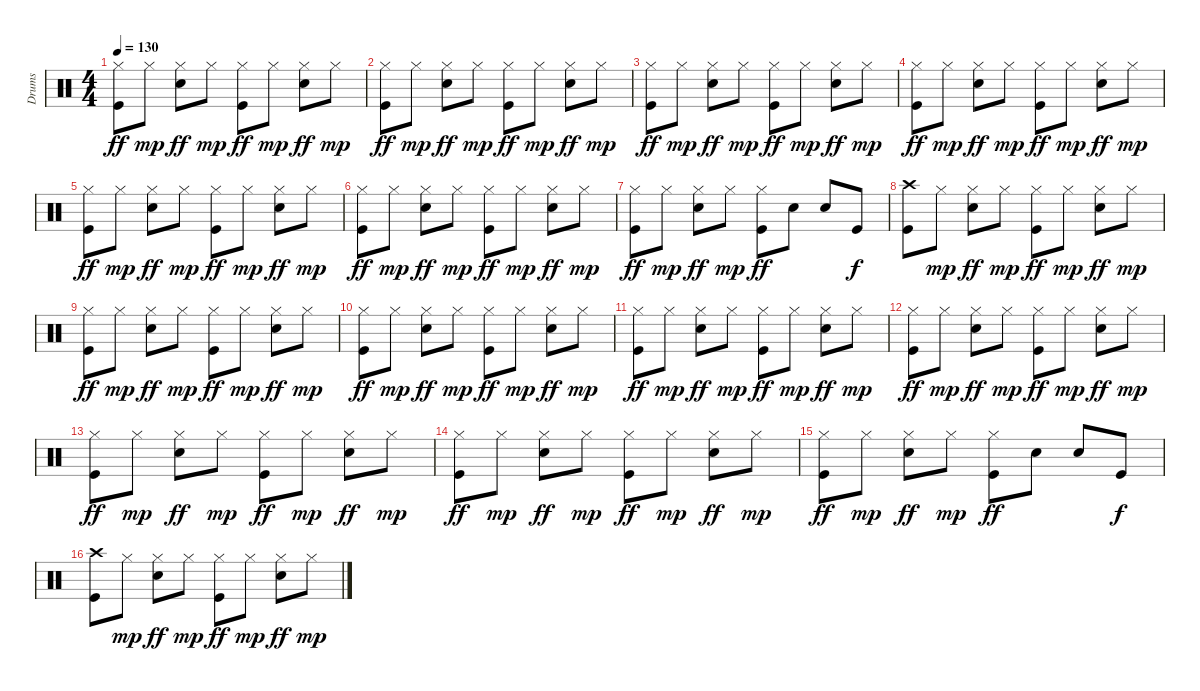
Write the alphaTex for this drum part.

\track ("Drums" "Drums") {instrument percussion}
\staff {score}
\articulation defaults
\ts (4 4)
\tempo 130
\clef neutral
\ks c
("Hi-Hat (closed)" "Kick (hit)").8{dy ff} "Hi-Hat (closed)".8{dy mp} ("Hi-Hat (closed)" "Snare (hit) 2").8{dy ff} "Hi-Hat (closed)".8{dy mp} ("Hi-Hat (closed)" "Kick (hit)").8{dy ff} "Hi-Hat (closed)".8{dy mp} ("Hi-Hat (closed)" "Snare (hit) 2").8{dy ff} "Hi-Hat (closed)".8{dy mp} |
("Hi-Hat (closed)" "Kick (hit)").8{dy ff} "Hi-Hat (closed)".8{dy mp} ("Hi-Hat (closed)" "Snare (hit) 2").8{dy ff} "Hi-Hat (closed)".8{dy mp} ("Hi-Hat (closed)" "Kick (hit)").8{dy ff} "Hi-Hat (closed)".8{dy mp} ("Hi-Hat (closed)" "Snare (hit) 2").8{dy ff} "Hi-Hat (closed)".8{dy mp} |
("Hi-Hat (closed)" "Kick (hit)").8{dy ff} "Hi-Hat (closed)".8{dy mp} ("Hi-Hat (closed)" "Snare (hit) 2").8{dy ff} "Hi-Hat (closed)".8{dy mp} ("Hi-Hat (closed)" "Kick (hit)").8{dy ff} "Hi-Hat (closed)".8{dy mp} ("Hi-Hat (closed)" "Snare (hit) 2").8{dy ff} "Hi-Hat (closed)".8{dy mp} |
("Hi-Hat (closed)" "Kick (hit)").8{dy ff} "Hi-Hat (closed)".8{dy mp} ("Hi-Hat (closed)" "Snare (hit) 2").8{dy ff} "Hi-Hat (closed)".8{dy mp} ("Hi-Hat (closed)" "Kick (hit)").8{dy ff} "Hi-Hat (closed)".8{dy mp} ("Hi-Hat (closed)" "Snare (hit) 2").8{dy ff} "Hi-Hat (closed)".8{dy mp} |
("Hi-Hat (closed)" "Kick (hit)").8{dy ff} "Hi-Hat (closed)".8{dy mp} ("Hi-Hat (closed)" "Snare (hit) 2").8{dy ff} "Hi-Hat (closed)".8{dy mp} ("Hi-Hat (closed)" "Kick (hit)").8{dy ff} "Hi-Hat (closed)".8{dy mp} ("Hi-Hat (closed)" "Snare (hit) 2").8{dy ff} "Hi-Hat (closed)".8{dy mp} |
("Hi-Hat (closed)" "Kick (hit)").8{dy ff} "Hi-Hat (closed)".8{dy mp} ("Hi-Hat (closed)" "Snare (hit) 2").8{dy ff} "Hi-Hat (closed)".8{dy mp} ("Hi-Hat (closed)" "Kick (hit)").8{dy ff} "Hi-Hat (closed)".8{dy mp} ("Hi-Hat (closed)" "Snare (hit) 2").8{dy ff} "Hi-Hat (closed)".8{dy mp} |
("Hi-Hat (closed)" "Kick (hit)").8{dy ff} "Hi-Hat (closed)".8{dy mp} ("Hi-Hat (closed)" "Snare (hit) 2").8{dy ff} "Hi-Hat (closed)".8{dy mp} ("Hi-Hat (closed)" "Kick (hit)").8{dy ff} "Snare (hit) 2".8 "Snare (hit) 2".8 "Kick (hit)".8{dy f} |
("Crash high (hit)" "Kick (hit)").8 "Hi-Hat (closed)".8{dy mp} ("Hi-Hat (closed)" "Snare (hit) 2").8{dy ff} "Hi-Hat (closed)".8{dy mp} ("Hi-Hat (closed)" "Kick (hit)").8{dy ff} "Hi-Hat (closed)".8{dy mp} ("Hi-Hat (closed)" "Snare (hit) 2").8{dy ff} "Hi-Hat (closed)".8{dy mp} |
("Hi-Hat (closed)" "Kick (hit)").8{dy ff} "Hi-Hat (closed)".8{dy mp} ("Hi-Hat (closed)" "Snare (hit) 2").8{dy ff} "Hi-Hat (closed)".8{dy mp} ("Hi-Hat (closed)" "Kick (hit)").8{dy ff} "Hi-Hat (closed)".8{dy mp} ("Hi-Hat (closed)" "Snare (hit) 2").8{dy ff} "Hi-Hat (closed)".8{dy mp} |
("Hi-Hat (closed)" "Kick (hit)").8{dy ff} "Hi-Hat (closed)".8{dy mp} ("Hi-Hat (closed)" "Snare (hit) 2").8{dy ff} "Hi-Hat (closed)".8{dy mp} ("Hi-Hat (closed)" "Kick (hit)").8{dy ff} "Hi-Hat (closed)".8{dy mp} ("Hi-Hat (closed)" "Snare (hit) 2").8{dy ff} "Hi-Hat (closed)".8{dy mp} |
("Hi-Hat (closed)" "Kick (hit)").8{dy ff} "Hi-Hat (closed)".8{dy mp} ("Hi-Hat (closed)" "Snare (hit) 2").8{dy ff} "Hi-Hat (closed)".8{dy mp} ("Hi-Hat (closed)" "Kick (hit)").8{dy ff} "Hi-Hat (closed)".8{dy mp} ("Hi-Hat (closed)" "Snare (hit) 2").8{dy ff} "Hi-Hat (closed)".8{dy mp} |
("Hi-Hat (closed)" "Kick (hit)").8{dy ff} "Hi-Hat (closed)".8{dy mp} ("Hi-Hat (closed)" "Snare (hit) 2").8{dy ff} "Hi-Hat (closed)".8{dy mp} ("Hi-Hat (closed)" "Kick (hit)").8{dy ff} "Hi-Hat (closed)".8{dy mp} ("Hi-Hat (closed)" "Snare (hit) 2").8{dy ff} "Hi-Hat (closed)".8{dy mp} |
("Hi-Hat (closed)" "Kick (hit)").8{dy ff} "Hi-Hat (closed)".8{dy mp} ("Hi-Hat (closed)" "Snare (hit) 2").8{dy ff} "Hi-Hat (closed)".8{dy mp} ("Hi-Hat (closed)" "Kick (hit)").8{dy ff} "Hi-Hat (closed)".8{dy mp} ("Hi-Hat (closed)" "Snare (hit) 2").8{dy ff} "Hi-Hat (closed)".8{dy mp} |
("Hi-Hat (closed)" "Kick (hit)").8{dy ff} "Hi-Hat (closed)".8{dy mp} ("Hi-Hat (closed)" "Snare (hit) 2").8{dy ff} "Hi-Hat (closed)".8{dy mp} ("Hi-Hat (closed)" "Kick (hit)").8{dy ff} "Hi-Hat (closed)".8{dy mp} ("Hi-Hat (closed)" "Snare (hit) 2").8{dy ff} "Hi-Hat (closed)".8{dy mp} |
("Hi-Hat (closed)" "Kick (hit)").8{dy ff} "Hi-Hat (closed)".8{dy mp} ("Hi-Hat (closed)" "Snare (hit) 2").8{dy ff} "Hi-Hat (closed)".8{dy mp} ("Hi-Hat (closed)" "Kick (hit)").8{dy ff} "Snare (hit) 2".8 "Snare (hit) 2".8 "Kick (hit)".8{dy f} |
("Crash high (hit)" "Kick (hit)").8 "Hi-Hat (closed)".8{dy mp} ("Hi-Hat (closed)" "Snare (hit) 2").8{dy ff} "Hi-Hat (closed)".8{dy mp} ("Hi-Hat (closed)" "Kick (hit)").8{dy ff} "Hi-Hat (closed)".8{dy mp} ("Hi-Hat (closed)" "Snare (hit) 2").8{dy ff} "Hi-Hat (closed)".8{dy mp}
